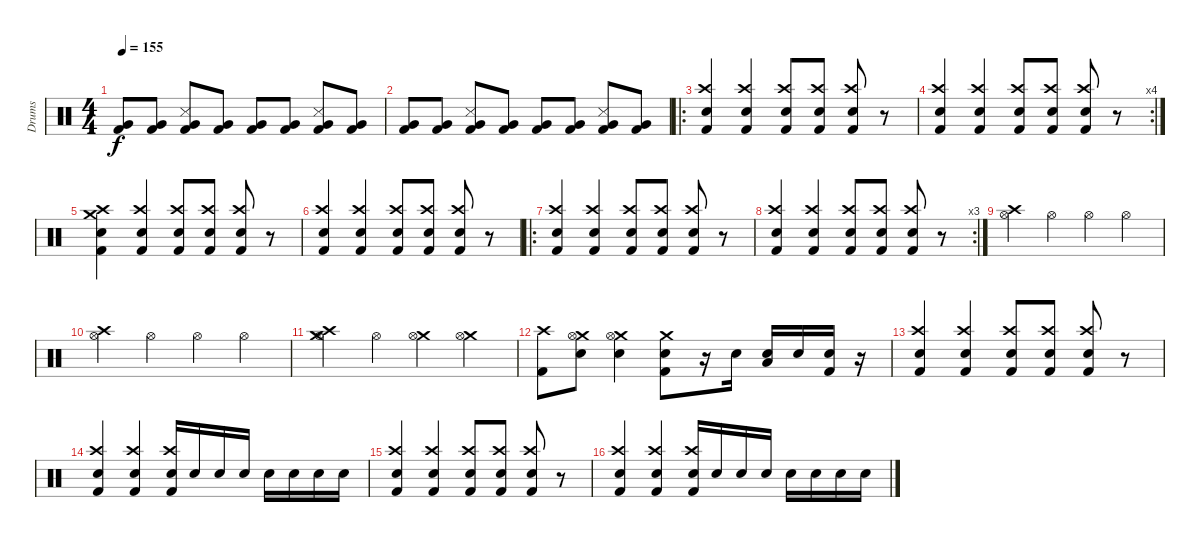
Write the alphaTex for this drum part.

\track ("Drums" "Drums") {instrument percussion}
\staff {score}
\articulation defaults
\ts (4 4)
\tempo 155
\clef neutral
\ks c
("Very Low Tom (hit)" "Kick (hit) 2").8{dy f} ("Very Low Tom (hit)" "Kick (hit) 2").8 ("Snare (side stick) 3" "Very Low Tom (hit)" "Kick (hit) 2").8 ("Very Low Tom (hit)" "Kick (hit) 2").8 ("Very Low Tom (hit)" "Kick (hit) 2").8 ("Very Low Tom (hit)" "Kick (hit) 2").8 ("Snare (side stick) 3" "Very Low Tom (hit)" "Kick (hit) 2").8 ("Very Low Tom (hit)" "Kick (hit) 2").8 |
("Very Low Tom (hit)" "Kick (hit) 2").8 ("Very Low Tom (hit)" "Kick (hit) 2").8 ("Snare (side stick) 3" "Very Low Tom (hit)" "Kick (hit) 2").8 ("Very Low Tom (hit)" "Kick (hit) 2").8 ("Very Low Tom (hit)" "Kick (hit) 2").8 ("Very Low Tom (hit)" "Kick (hit) 2").8 ("Snare (side stick) 3" "Very Low Tom (hit)" "Kick (hit) 2").8 ("Very Low Tom (hit)" "Kick (hit) 2").8 |
\ro
("Crash high (hit)" "Snare (hit) 2" "Kick (hit) 2").4 ("Crash high (hit)" "Snare (hit) 2" "Kick (hit) 2").4 ("Crash high (hit)" "Snare (hit) 2" "Kick (hit) 2").8 ("Crash high (hit)" "Snare (hit) 2" "Kick (hit) 2").8 ("Crash high (hit)" "Snare (hit) 2" "Kick (hit) 2").8 r.8 |
\rc 4
("Crash high (hit)" "Snare (hit) 2" "Kick (hit) 2").4 ("Crash high (hit)" "Snare (hit) 2" "Kick (hit) 2").4 ("Crash high (hit)" "Snare (hit) 2" "Kick (hit) 2").8 ("Crash high (hit)" "Snare (hit) 2" "Kick (hit) 2").8 ("Crash high (hit)" "Snare (hit) 2" "Kick (hit) 2").8 r.8 |
("Crash high (hit)" "Crash medium (hit)" "Snare (hit) 2" "Kick (hit) 2").4 ("Crash high (hit)" "Snare (hit) 2" "Kick (hit) 2").4 ("Crash high (hit)" "Snare (hit) 2" "Kick (hit) 2").8 ("Crash high (hit)" "Snare (hit) 2" "Kick (hit) 2").8 ("Crash high (hit)" "Snare (hit) 2" "Kick (hit) 2").8 r.8 |
("Crash high (hit)" "Snare (hit) 2" "Kick (hit) 2").4 ("Crash high (hit)" "Snare (hit) 2" "Kick (hit) 2").4 ("Crash high (hit)" "Snare (hit) 2" "Kick (hit) 2").8 ("Crash high (hit)" "Snare (hit) 2" "Kick (hit) 2").8 ("Crash high (hit)" "Snare (hit) 2" "Kick (hit) 2").8 r.8 |
\ro
("Crash high (hit)" "Snare (hit) 2" "Kick (hit) 2").4 ("Crash high (hit)" "Snare (hit) 2" "Kick (hit) 2").4 ("Crash high (hit)" "Snare (hit) 2" "Kick (hit) 2").8 ("Crash high (hit)" "Snare (hit) 2" "Kick (hit) 2").8 ("Crash high (hit)" "Snare (hit) 2" "Kick (hit) 2").8 r.8 |
\rc 3
("Crash high (hit)" "Snare (hit) 2" "Kick (hit) 2").4 ("Crash high (hit)" "Snare (hit) 2" "Kick (hit) 2").4 ("Crash high (hit)" "Snare (hit) 2" "Kick (hit) 2").8 ("Crash high (hit)" "Snare (hit) 2" "Kick (hit) 2").8 ("Crash high (hit)" "Snare (hit) 2" "Kick (hit) 2").8 r.8 |
("Crash high (hit)" "Hi-Hat (open)").4 "Hi-Hat (open)".4 "Hi-Hat (open)".4 "Hi-Hat (open)".4 |
("Crash high (hit)" "Hi-Hat (open)").4 "Hi-Hat (open)".4 "Hi-Hat (open)".4 "Hi-Hat (open)".4 |
("Crash medium (hit)" "Crash high (hit)" "Hi-Hat (open)").4 "Hi-Hat (open)".4 ("Crash medium (hit)" "Hi-Hat (open)").4 ("Crash medium (hit)" "Hi-Hat (open)").4 |
("Crash high (hit)" "Kick (hit) 2").8 ("Crash medium (hit)" "Snare (hit) 2" "Hi-Hat (open)").8 ("Crash medium (hit)" "Snare (hit) 2" "Hi-Hat (open)").4 ("Crash medium (hit)" "Snare (hit) 2" "Kick (hit) 2").8 r.16 "Snare (hit) 2".16 ("Low Tom (hit)" "Snare (hit) 2").16 "Snare (hit) 2".16 ("Snare (hit) 2" "Kick (hit) 2").16 r.16 |
("Crash high (hit)" "Snare (hit) 2" "Kick (hit) 2").4 ("Crash high (hit)" "Snare (hit) 2" "Kick (hit) 2").4 ("Crash high (hit)" "Snare (hit) 2" "Kick (hit) 2").8 ("Crash high (hit)" "Snare (hit) 2" "Kick (hit) 2").8 ("Crash high (hit)" "Snare (hit) 2" "Kick (hit) 2").8 r.8 |
("Crash high (hit)" "Snare (hit) 2" "Kick (hit) 2").4 ("Crash high (hit)" "Snare (hit) 2" "Kick (hit) 2").4 ("Crash high (hit)" "Snare (hit) 2" "Kick (hit) 2").16 "Snare (hit) 2".16 "Snare (hit) 2".16 "Snare (hit) 2".16 "Snare (hit) 2".16 "Snare (hit) 2".16 "Snare (hit) 2".16 "Snare (hit) 2".16 |
("Crash high (hit)" "Snare (hit) 2" "Kick (hit) 2").4 ("Crash high (hit)" "Snare (hit) 2" "Kick (hit) 2").4 ("Crash high (hit)" "Snare (hit) 2" "Kick (hit) 2").8 ("Crash high (hit)" "Snare (hit) 2" "Kick (hit) 2").8 ("Crash high (hit)" "Snare (hit) 2" "Kick (hit) 2").8 r.8 |
("Crash high (hit)" "Snare (hit) 2" "Kick (hit) 2").4 ("Crash high (hit)" "Snare (hit) 2" "Kick (hit) 2").4 ("Crash high (hit)" "Snare (hit) 2" "Kick (hit) 2").16 "Snare (hit) 2".16 "Snare (hit) 2".16 "Snare (hit) 2".16 "Snare (hit) 2".16 "Snare (hit) 2".16 "Snare (hit) 2".16 "Snare (hit) 2".16
